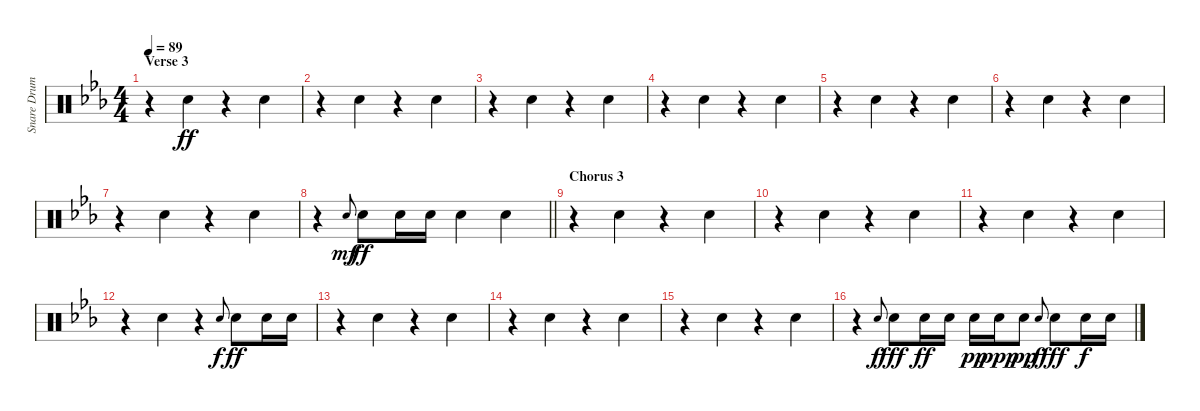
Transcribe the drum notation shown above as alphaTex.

\track ("Snare Drum" "Snare Drum") {instrument percussion}
\staff {score}
\articulation defaults
\ts (4 4)
\section ("" "Verse 3")
\tempo 89
\clef neutral
\ks eb
r.4{dy ff beam merge} "Electric Snare (hit)".4 r.4{beam merge} "Electric Snare (hit)".4 |
r.4{beam merge} "Electric Snare (hit)".4 r.4{beam merge} "Electric Snare (hit)".4 |
r.4{beam merge} "Electric Snare (hit)".4 r.4{beam merge} "Electric Snare (hit)".4 |
r.4{beam merge} "Electric Snare (hit)".4 r.4{beam merge} "Electric Snare (hit)".4 |
r.4{beam merge} "Electric Snare (hit)".4 r.4{beam merge} "Electric Snare (hit)".4 |
r.4{beam merge} "Electric Snare (hit)".4 r.4{beam merge} "Electric Snare (hit)".4 |
r.4{beam merge} "Electric Snare (hit)".4 r.4{beam merge} "Electric Snare (hit)".4 |
\barLineRight lightlight
r.4 "Electric Snare (hit)".8{gr onbeat dy mf} "Electric Snare (hit)".8{dy ff} "Electric Snare (hit)".16 "Electric Snare (hit)".16 "Electric Snare (hit)".4 "Electric Snare (hit)".4 |
\section ("" "Chorus 3")
r.4{beam merge} "Electric Snare (hit)".4 r.4{beam merge} "Electric Snare (hit)".4 |
r.4{beam merge} "Electric Snare (hit)".4 r.4{beam merge} "Electric Snare (hit)".4 |
r.4{beam merge} "Electric Snare (hit)".4 r.4{beam merge} "Electric Snare (hit)".4 |
r.4{beam merge} "Electric Snare (hit)".4 r.4 "Electric Snare (hit)".8{gr onbeat dy f beam split} "Electric Snare (hit)".8{dy ff} "Electric Snare (hit)".16 "Electric Snare (hit)".16 |
r.4{beam merge} "Electric Snare (hit)".4 r.4{beam merge} "Electric Snare (hit)".4 |
r.4{beam merge} "Electric Snare (hit)".4 r.4{beam merge} "Electric Snare (hit)".4 |
r.4{beam merge} "Electric Snare (hit)".4 r.4{beam merge} "Electric Snare (hit)".4 |
r.4 "Electric Snare (hit)".8{gr onbeat dy f} "Electric Snare (hit)".8{dy fff} "Electric Snare (hit)".16{dy ff} "Electric Snare (hit)".16 "Snare (hit) 2".16{dy pp} "Snare (hit) 2".16{dy ppp} "Snare (hit) 2".8{dy pp} "Electric Snare (hit)".8{gr onbeat dy f} "Electric Snare (hit)".8{dy fff volume 13} "Electric Snare (hit)".16{dy f} "Electric Snare (hit)".16
